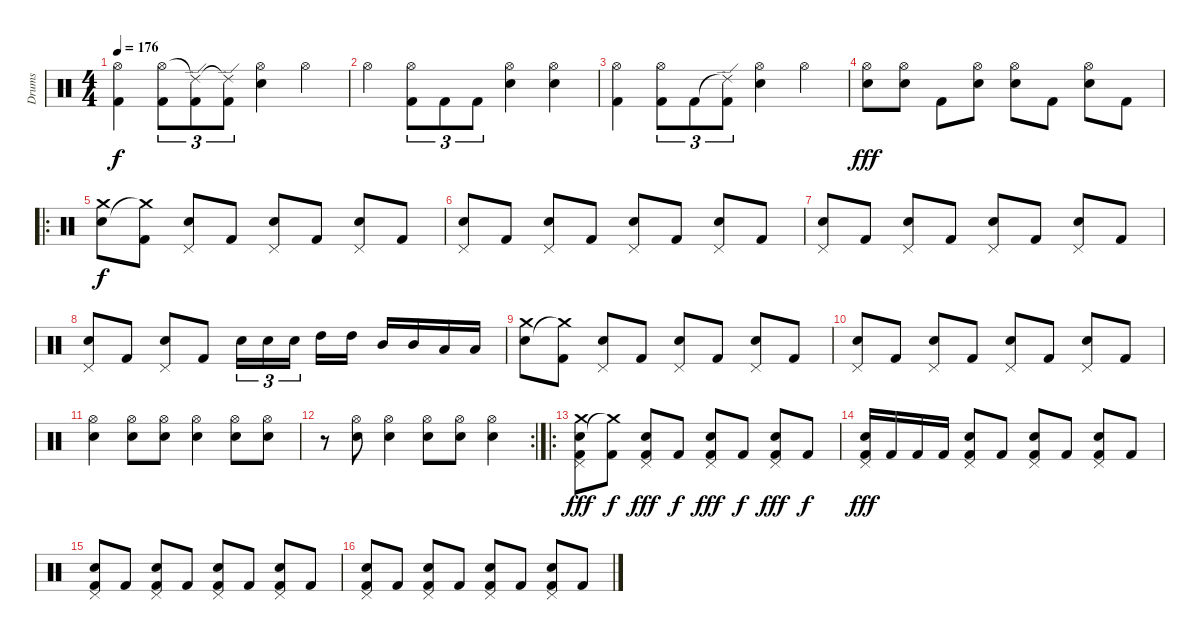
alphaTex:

\track ("Drums" "Drums") {instrument percussion}
\staff {score}
\articulation defaults
\ts (4 4)
\tempo 176
\clef neutral
\ks c
("Hi-Hat (open)" "Kick (hit) 2").4{dy f} ("Hi-Hat (open)" "Kick (hit) 2").8{tu (3 2)} ("Ride (edge) 2"{t} "Kick (hit) 2").8{tu (3 2)} ("Ride (edge) 2"{t} "Kick (hit) 2").8{tu (3 2)} ("Hi-Hat (open)" "Snare (hit) 2").4 "Hi-Hat (open)".4 |
"Hi-Hat (open)".4 ("Hi-Hat (open)" "Kick (hit) 2").8{tu (3 2)} "Kick (hit) 2".8{tu (3 2)} "Kick (hit) 2".8{tu (3 2)} ("Hi-Hat (open)" "Snare (hit) 2").4 ("Hi-Hat (open)" "Snare (hit) 2").4 |
("Hi-Hat (open)" "Kick (hit) 2").4 ("Hi-Hat (open)" "Kick (hit) 2").8{tu (3 2)} "Kick (hit) 2".8{tu (3 2)} ("Ride (edge) 2"{t} "Kick (hit) 2").8{tu (3 2)} ("Hi-Hat (open)" "Snare (hit) 2").4 "Hi-Hat (open)".4 |
("Snare (hit) 2" "Hi-Hat (open)").8{dy fff} ("Snare (hit) 2" "Hi-Hat (open)").8 "Kick (hit) 2".8 ("Snare (hit) 2" "Hi-Hat (open)").8 ("Snare (hit) 2" "Hi-Hat (open)").8 "Kick (hit) 2".8 ("Snare (hit) 2" "Hi-Hat (open)").8 "Kick (hit) 2".8 |
\ro
("Crash medium (hit)" "Snare (hit) 2").8{dy f} ("Kick (hit) 2" "Crash medium (hit)"{t}).8 ("Pedal Hi-Hat (hit)" "Snare (hit) 2").8 "Kick (hit) 2".8 ("Pedal Hi-Hat (hit)" "Snare (hit) 2").8 "Kick (hit) 2".8 ("Pedal Hi-Hat (hit)" "Snare (hit) 2").8 "Kick (hit) 2".8 |
("Pedal Hi-Hat (hit)" "Snare (hit) 2").8 "Kick (hit) 2".8 ("Pedal Hi-Hat (hit)" "Snare (hit) 2").8 "Kick (hit) 2".8 ("Pedal Hi-Hat (hit)" "Snare (hit) 2").8 "Kick (hit) 2".8 ("Pedal Hi-Hat (hit)" "Snare (hit) 2").8 "Kick (hit) 2".8 |
("Pedal Hi-Hat (hit)" "Snare (hit) 2").8 "Kick (hit) 2".8 ("Pedal Hi-Hat (hit)" "Snare (hit) 2").8 "Kick (hit) 2".8 ("Pedal Hi-Hat (hit)" "Snare (hit) 2").8 "Kick (hit) 2".8 ("Pedal Hi-Hat (hit)" "Snare (hit) 2").8 "Kick (hit) 2".8 |
("Pedal Hi-Hat (hit)" "Snare (hit) 2").8 "Kick (hit) 2".8 ("Pedal Hi-Hat (hit)" "Snare (hit) 2").8 "Kick (hit) 2".8 "Electric Snare (hit)".16{tu (3 2)} "Electric Snare (hit)".16{tu (3 2)} "Electric Snare (hit)".16{tu (3 2) beam splitsecondary} "High Tom (hit)".16 "High Tom (hit)".16 "Mid Tom (hit)".16 "Mid Tom (hit)".16 "Low Tom (hit)".16 "Low Tom (hit)".16 |
("Crash medium (hit)" "Snare (hit) 2").8 ("Kick (hit) 2" "Crash medium (hit)"{t}).8 ("Pedal Hi-Hat (hit)" "Snare (hit) 2").8 "Kick (hit) 2".8 ("Pedal Hi-Hat (hit)" "Snare (hit) 2").8 "Kick (hit) 2".8 ("Pedal Hi-Hat (hit)" "Snare (hit) 2").8 "Kick (hit) 2".8 |
("Pedal Hi-Hat (hit)" "Snare (hit) 2").8 "Kick (hit) 2".8 ("Pedal Hi-Hat (hit)" "Snare (hit) 2").8 "Kick (hit) 2".8 ("Pedal Hi-Hat (hit)" "Snare (hit) 2").8 "Kick (hit) 2".8 ("Pedal Hi-Hat (hit)" "Snare (hit) 2").8 "Kick (hit) 2".8 |
("Snare (hit) 2" "Hi-Hat (open)").4 ("Snare (hit) 2" "Hi-Hat (open)").8 ("Snare (hit) 2" "Hi-Hat (open)").8 ("Snare (hit) 2" "Hi-Hat (open)").4 ("Snare (hit) 2" "Hi-Hat (open)").8 ("Snare (hit) 2" "Hi-Hat (open)").8 |
\rc 2
r.8 ("Snare (hit) 2" "Hi-Hat (open)").8 ("Snare (hit) 2" "Hi-Hat (open)").4 ("Snare (hit) 2" "Hi-Hat (open)").8 ("Snare (hit) 2" "Hi-Hat (open)").8 ("Snare (hit) 2" "Hi-Hat (open)").4 |
\ro
("Crash medium (hit)" "Snare (hit) 2" "Pedal Hi-Hat (hit)" "Kick (hit) 2").8{dy fff} ("Kick (hit) 2" "Crash medium (hit)"{t}).8{dy f} ("Pedal Hi-Hat (hit)" "Snare (hit) 2" "Kick (hit) 2").8{dy fff} "Kick (hit) 2".8{dy f} ("Pedal Hi-Hat (hit)" "Snare (hit) 2" "Kick (hit) 2").8{dy fff} "Kick (hit) 2".8{dy f} ("Pedal Hi-Hat (hit)" "Snare (hit) 2" "Kick (hit) 2").8{dy fff} "Kick (hit) 2".8{dy f} |
("Pedal Hi-Hat (hit)" "Snare (hit) 2" "Kick (hit) 2").16{dy fff} "Kick (hit) 2".16 "Kick (hit) 2".16 "Kick (hit) 2".16 ("Snare (hit) 2" "Pedal Hi-Hat (hit)" "Kick (hit) 2").8 "Kick (hit) 2".8 ("Snare (hit) 2" "Pedal Hi-Hat (hit)" "Kick (hit) 2").8 "Kick (hit) 2".8 ("Pedal Hi-Hat (hit)" "Snare (hit) 2" "Kick (hit) 2").8 "Kick (hit) 2".8 |
("Pedal Hi-Hat (hit)" "Snare (hit) 2" "Kick (hit) 2").8 "Kick (hit) 2".8 ("Snare (hit) 2" "Pedal Hi-Hat (hit)" "Kick (hit) 2").8 "Kick (hit) 2".8 ("Snare (hit) 2" "Pedal Hi-Hat (hit)" "Kick (hit) 2").8 "Kick (hit) 2".8 ("Pedal Hi-Hat (hit)" "Snare (hit) 2" "Kick (hit) 2").8 "Kick (hit) 2".8 |
("Pedal Hi-Hat (hit)" "Snare (hit) 2" "Kick (hit) 2").8 "Kick (hit) 2".8 ("Snare (hit) 2" "Pedal Hi-Hat (hit)" "Kick (hit) 2").8 "Kick (hit) 2".8 ("Snare (hit) 2" "Pedal Hi-Hat (hit)" "Kick (hit) 2").8 "Kick (hit) 2".8 ("Pedal Hi-Hat (hit)" "Snare (hit) 2" "Kick (hit) 2").8 "Kick (hit) 2".8
